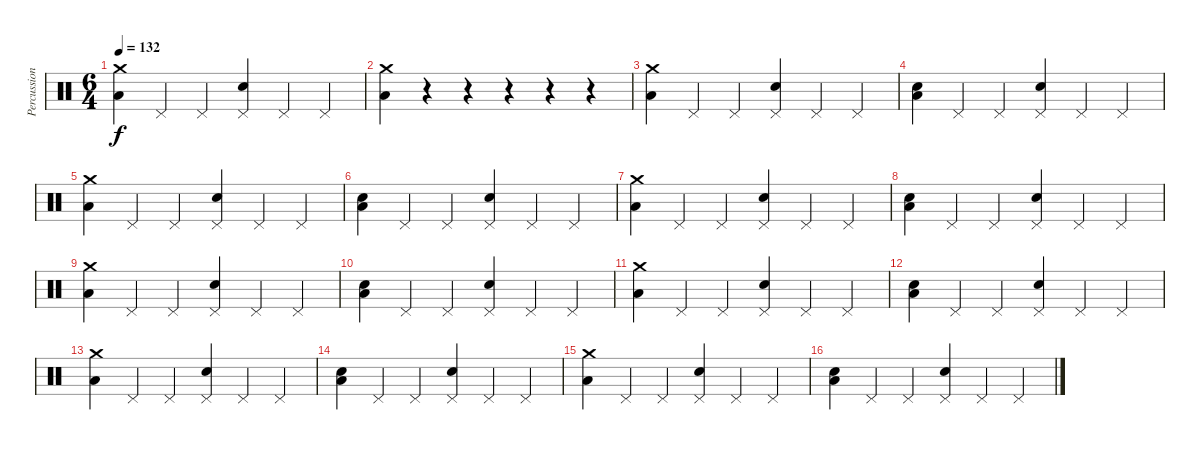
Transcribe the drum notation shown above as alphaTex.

\track ("Percussion" "Percussion") {instrument percussion}
\staff {score}
\articulation defaults
\ts (6 4)
\tempo 132
\clef neutral
\ks c
("Crash medium (hit)" "Low Floor Tom (hit)").4{dy f} "Pedal Hi-Hat (hit)".4 "Pedal Hi-Hat (hit)".4 ("Pedal Hi-Hat (hit)" "Snare (hit) 2").4 "Pedal Hi-Hat (hit)".4 "Pedal Hi-Hat (hit)".4 |
("Crash medium (hit)" "Low Floor Tom (hit)").4 r.4 r.4 r.4 r.4 r.4 |
("Crash medium (hit)" "Low Floor Tom (hit)").4 "Pedal Hi-Hat (hit)".4 "Pedal Hi-Hat (hit)".4 ("Pedal Hi-Hat (hit)" "Snare (hit) 2").4 "Pedal Hi-Hat (hit)".4 "Pedal Hi-Hat (hit)".4 |
("Snare (hit) 2" "Low Floor Tom (hit)").4 "Pedal Hi-Hat (hit)".4 "Pedal Hi-Hat (hit)".4 ("Pedal Hi-Hat (hit)" "Snare (hit) 2").4 "Pedal Hi-Hat (hit)".4 "Pedal Hi-Hat (hit)".4 |
("Crash medium (hit)" "Low Floor Tom (hit)").4 "Pedal Hi-Hat (hit)".4 "Pedal Hi-Hat (hit)".4 ("Pedal Hi-Hat (hit)" "Snare (hit) 2").4 "Pedal Hi-Hat (hit)".4 "Pedal Hi-Hat (hit)".4 |
("Snare (hit) 2" "Low Floor Tom (hit)").4 "Pedal Hi-Hat (hit)".4 "Pedal Hi-Hat (hit)".4 ("Pedal Hi-Hat (hit)" "Snare (hit) 2").4 "Pedal Hi-Hat (hit)".4 "Pedal Hi-Hat (hit)".4 |
("Crash medium (hit)" "Low Floor Tom (hit)").4 "Pedal Hi-Hat (hit)".4 "Pedal Hi-Hat (hit)".4 ("Pedal Hi-Hat (hit)" "Snare (hit) 2").4 "Pedal Hi-Hat (hit)".4 "Pedal Hi-Hat (hit)".4 |
("Snare (hit) 2" "Low Floor Tom (hit)").4 "Pedal Hi-Hat (hit)".4 "Pedal Hi-Hat (hit)".4 ("Pedal Hi-Hat (hit)" "Snare (hit) 2").4 "Pedal Hi-Hat (hit)".4 "Pedal Hi-Hat (hit)".4 |
("Crash medium (hit)" "Low Floor Tom (hit)").4 "Pedal Hi-Hat (hit)".4 "Pedal Hi-Hat (hit)".4 ("Pedal Hi-Hat (hit)" "Snare (hit) 2").4 "Pedal Hi-Hat (hit)".4 "Pedal Hi-Hat (hit)".4 |
("Snare (hit) 2" "Low Floor Tom (hit)").4 "Pedal Hi-Hat (hit)".4 "Pedal Hi-Hat (hit)".4 ("Pedal Hi-Hat (hit)" "Snare (hit) 2").4 "Pedal Hi-Hat (hit)".4 "Pedal Hi-Hat (hit)".4 |
("Crash medium (hit)" "Low Floor Tom (hit)").4 "Pedal Hi-Hat (hit)".4 "Pedal Hi-Hat (hit)".4 ("Pedal Hi-Hat (hit)" "Snare (hit) 2").4 "Pedal Hi-Hat (hit)".4 "Pedal Hi-Hat (hit)".4 |
("Snare (hit) 2" "Low Floor Tom (hit)").4 "Pedal Hi-Hat (hit)".4 "Pedal Hi-Hat (hit)".4 ("Pedal Hi-Hat (hit)" "Snare (hit) 2").4 "Pedal Hi-Hat (hit)".4 "Pedal Hi-Hat (hit)".4 |
("Crash medium (hit)" "Low Floor Tom (hit)").4 "Pedal Hi-Hat (hit)".4 "Pedal Hi-Hat (hit)".4 ("Pedal Hi-Hat (hit)" "Snare (hit) 2").4 "Pedal Hi-Hat (hit)".4 "Pedal Hi-Hat (hit)".4 |
("Snare (hit) 2" "Low Floor Tom (hit)").4 "Pedal Hi-Hat (hit)".4 "Pedal Hi-Hat (hit)".4 ("Pedal Hi-Hat (hit)" "Snare (hit) 2").4 "Pedal Hi-Hat (hit)".4 "Pedal Hi-Hat (hit)".4 |
("Crash medium (hit)" "Low Floor Tom (hit)").4 "Pedal Hi-Hat (hit)".4 "Pedal Hi-Hat (hit)".4 ("Pedal Hi-Hat (hit)" "Snare (hit) 2").4 "Pedal Hi-Hat (hit)".4 "Pedal Hi-Hat (hit)".4 |
("Snare (hit) 2" "Low Floor Tom (hit)").4 "Pedal Hi-Hat (hit)".4 "Pedal Hi-Hat (hit)".4 ("Pedal Hi-Hat (hit)" "Snare (hit) 2").4 "Pedal Hi-Hat (hit)".4 "Pedal Hi-Hat (hit)".4
